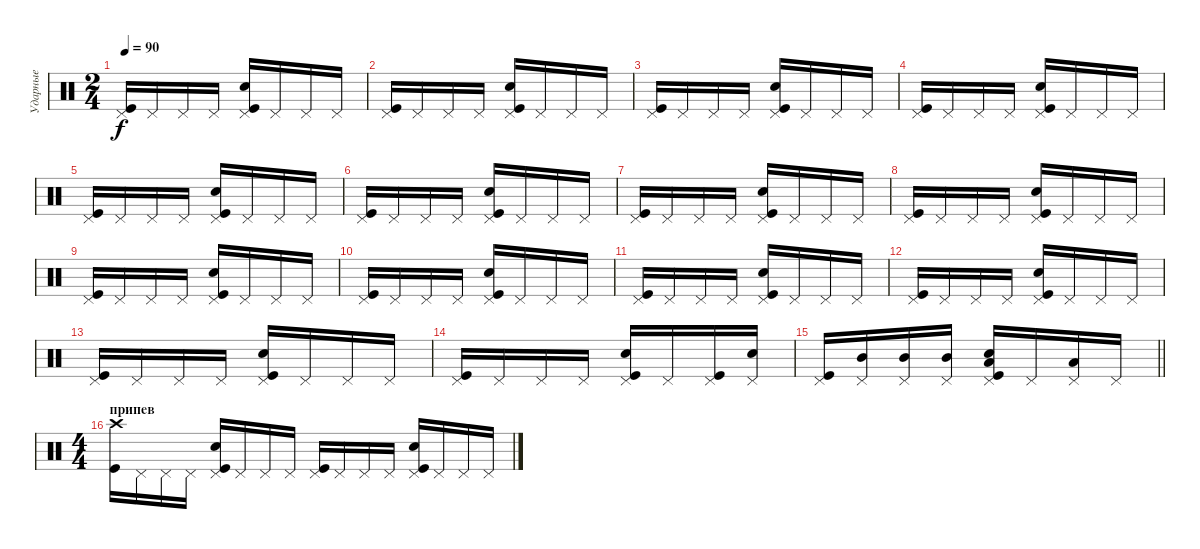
\track ("Ударные" "Ударные") {instrument percussion}
\staff {score}
\articulation defaults
\ts (2 4)
\tempo 90
\clef neutral
\ks c
("Pedal Hi-Hat (hit)" "Kick (hit)").16{dy f} "Pedal Hi-Hat (hit)".16 "Pedal Hi-Hat (hit)".16 "Pedal Hi-Hat (hit)".16 ("Pedal Hi-Hat (hit)" "Kick (hit)" "Snare (hit) 2").16 "Pedal Hi-Hat (hit)".16 "Pedal Hi-Hat (hit)".16 "Pedal Hi-Hat (hit)".16 |
("Pedal Hi-Hat (hit)" "Kick (hit)").16 "Pedal Hi-Hat (hit)".16 "Pedal Hi-Hat (hit)".16 "Pedal Hi-Hat (hit)".16 ("Pedal Hi-Hat (hit)" "Kick (hit)" "Snare (hit) 2").16 "Pedal Hi-Hat (hit)".16 "Pedal Hi-Hat (hit)".16 "Pedal Hi-Hat (hit)".16 |
("Pedal Hi-Hat (hit)" "Kick (hit)").16 "Pedal Hi-Hat (hit)".16 "Pedal Hi-Hat (hit)".16 "Pedal Hi-Hat (hit)".16 ("Pedal Hi-Hat (hit)" "Kick (hit)" "Snare (hit) 2").16 "Pedal Hi-Hat (hit)".16 "Pedal Hi-Hat (hit)".16 "Pedal Hi-Hat (hit)".16 |
("Pedal Hi-Hat (hit)" "Kick (hit)").16 "Pedal Hi-Hat (hit)".16 "Pedal Hi-Hat (hit)".16 "Pedal Hi-Hat (hit)".16 ("Pedal Hi-Hat (hit)" "Kick (hit)" "Snare (hit) 2").16 "Pedal Hi-Hat (hit)".16 "Pedal Hi-Hat (hit)".16 "Pedal Hi-Hat (hit)".16 |
("Pedal Hi-Hat (hit)" "Kick (hit)").16 "Pedal Hi-Hat (hit)".16 "Pedal Hi-Hat (hit)".16 "Pedal Hi-Hat (hit)".16 ("Pedal Hi-Hat (hit)" "Kick (hit)" "Snare (hit) 2").16 "Pedal Hi-Hat (hit)".16 "Pedal Hi-Hat (hit)".16 "Pedal Hi-Hat (hit)".16 |
("Pedal Hi-Hat (hit)" "Kick (hit)").16 "Pedal Hi-Hat (hit)".16 "Pedal Hi-Hat (hit)".16 "Pedal Hi-Hat (hit)".16 ("Pedal Hi-Hat (hit)" "Kick (hit)" "Snare (hit) 2").16 "Pedal Hi-Hat (hit)".16 "Pedal Hi-Hat (hit)".16 "Pedal Hi-Hat (hit)".16 |
("Pedal Hi-Hat (hit)" "Kick (hit)").16 "Pedal Hi-Hat (hit)".16 "Pedal Hi-Hat (hit)".16 "Pedal Hi-Hat (hit)".16 ("Pedal Hi-Hat (hit)" "Kick (hit)" "Snare (hit) 2").16 "Pedal Hi-Hat (hit)".16 "Pedal Hi-Hat (hit)".16 "Pedal Hi-Hat (hit)".16 |
("Pedal Hi-Hat (hit)" "Kick (hit)").16 "Pedal Hi-Hat (hit)".16 "Pedal Hi-Hat (hit)".16 "Pedal Hi-Hat (hit)".16 ("Pedal Hi-Hat (hit)" "Kick (hit)" "Snare (hit) 2").16 "Pedal Hi-Hat (hit)".16 "Pedal Hi-Hat (hit)".16 "Pedal Hi-Hat (hit)".16 |
("Pedal Hi-Hat (hit)" "Kick (hit)").16 "Pedal Hi-Hat (hit)".16 "Pedal Hi-Hat (hit)".16 "Pedal Hi-Hat (hit)".16 ("Pedal Hi-Hat (hit)" "Kick (hit)" "Snare (hit) 2").16 "Pedal Hi-Hat (hit)".16 "Pedal Hi-Hat (hit)".16 "Pedal Hi-Hat (hit)".16 |
("Pedal Hi-Hat (hit)" "Kick (hit)").16 "Pedal Hi-Hat (hit)".16 "Pedal Hi-Hat (hit)".16 "Pedal Hi-Hat (hit)".16 ("Pedal Hi-Hat (hit)" "Kick (hit)" "Snare (hit) 2").16 "Pedal Hi-Hat (hit)".16 "Pedal Hi-Hat (hit)".16 "Pedal Hi-Hat (hit)".16 |
("Pedal Hi-Hat (hit)" "Kick (hit)").16 "Pedal Hi-Hat (hit)".16 "Pedal Hi-Hat (hit)".16 "Pedal Hi-Hat (hit)".16 ("Pedal Hi-Hat (hit)" "Kick (hit)" "Snare (hit) 2").16 "Pedal Hi-Hat (hit)".16 "Pedal Hi-Hat (hit)".16 "Pedal Hi-Hat (hit)".16 |
("Pedal Hi-Hat (hit)" "Kick (hit)").16 "Pedal Hi-Hat (hit)".16 "Pedal Hi-Hat (hit)".16 "Pedal Hi-Hat (hit)".16 ("Pedal Hi-Hat (hit)" "Kick (hit)" "Snare (hit) 2").16 "Pedal Hi-Hat (hit)".16 "Pedal Hi-Hat (hit)".16 "Pedal Hi-Hat (hit)".16 |
("Pedal Hi-Hat (hit)" "Kick (hit)").16 "Pedal Hi-Hat (hit)".16 "Pedal Hi-Hat (hit)".16 "Pedal Hi-Hat (hit)".16 ("Pedal Hi-Hat (hit)" "Kick (hit)" "Snare (hit) 2").16 "Pedal Hi-Hat (hit)".16 "Pedal Hi-Hat (hit)".16 "Pedal Hi-Hat (hit)".16 |
("Pedal Hi-Hat (hit)" "Kick (hit)").16 "Pedal Hi-Hat (hit)".16 "Pedal Hi-Hat (hit)".16 "Pedal Hi-Hat (hit)".16 ("Pedal Hi-Hat (hit)" "Kick (hit)" "Snare (hit) 2").16 "Pedal Hi-Hat (hit)".16 ("Pedal Hi-Hat (hit)" "Kick (hit)").16 ("Pedal Hi-Hat (hit)" "Snare (hit) 2").16 |
\barLineRight lightlight
("Pedal Hi-Hat (hit)" "Kick (hit)").16 ("Pedal Hi-Hat (hit)" "Mid Tom (hit)").16 ("Pedal Hi-Hat (hit)" "Mid Tom (hit)").16 ("Pedal Hi-Hat (hit)" "Mid Tom (hit)").16 ("Pedal Hi-Hat (hit)" "Kick (hit)" "Snare (hit) 2" "Low Tom (hit)").16 "Pedal Hi-Hat (hit)".16 ("Pedal Hi-Hat (hit)" "Low Tom (hit)").16 "Pedal Hi-Hat (hit)".16 |
\ts (4 4)
\section ("" "припев")
("Crash high (hit)" "Kick (hit)").16 "Pedal Hi-Hat (hit)".16 "Pedal Hi-Hat (hit)".16 "Pedal Hi-Hat (hit)".16 ("Pedal Hi-Hat (hit)" "Kick (hit)" "Snare (hit) 2").16 "Pedal Hi-Hat (hit)".16 "Pedal Hi-Hat (hit)".16 "Pedal Hi-Hat (hit)".16 ("Pedal Hi-Hat (hit)" "Kick (hit)").16 "Pedal Hi-Hat (hit)".16 "Pedal Hi-Hat (hit)".16 "Pedal Hi-Hat (hit)".16 ("Pedal Hi-Hat (hit)" "Kick (hit)" "Snare (hit) 2").16 "Pedal Hi-Hat (hit)".16 "Pedal Hi-Hat (hit)".16 "Pedal Hi-Hat (hit)".16
